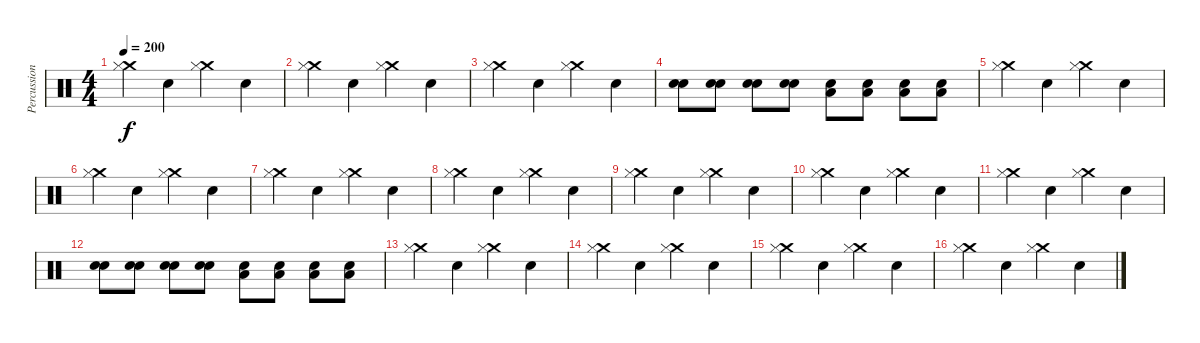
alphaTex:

\track ("Percussion" "Percussion") {instrument percussion}
\staff {score}
\articulation defaults
\ts (4 4)
\tempo 200
\clef neutral
\ks c
("Crash medium (hit)" "Hi-Hat (closed)").4{dy f} "Snare (hit) 2".4 ("Crash medium (hit)" "Hi-Hat (closed)").4 "Snare (hit) 2".4 |
("Crash medium (hit)" "Hi-Hat (closed)").4 "Snare (hit) 2".4 ("Crash medium (hit)" "Hi-Hat (closed)").4 "Snare (hit) 2".4 |
("Crash medium (hit)" "Hi-Hat (closed)").4 "Snare (hit) 2".4 ("Crash medium (hit)" "Hi-Hat (closed)").4 "Snare (hit) 2".4 |
("Snare (hit) 2" "Snare (hit) 2").8 ("Snare (hit) 2" "Snare (hit) 2").8 ("Snare (hit) 2" "Snare (hit) 2").8 ("Snare (hit) 2" "Snare (hit) 2").8 ("Low Floor Tom (hit)" "Snare (hit) 2").8 ("Low Floor Tom (hit)" "Snare (hit) 2").8 ("Low Floor Tom (hit)" "Snare (hit) 2").8 ("Low Floor Tom (hit)" "Snare (hit) 2").8 |
("Crash medium (hit)" "Hi-Hat (closed)").4 "Snare (hit) 2".4 ("Crash medium (hit)" "Hi-Hat (closed)").4 "Snare (hit) 2".4 |
("Crash medium (hit)" "Hi-Hat (closed)").4 "Snare (hit) 2".4 ("Crash medium (hit)" "Hi-Hat (closed)").4 "Snare (hit) 2".4 |
("Crash medium (hit)" "Hi-Hat (closed)").4 "Snare (hit) 2".4 ("Crash medium (hit)" "Hi-Hat (closed)").4 "Snare (hit) 2".4 |
("Crash medium (hit)" "Hi-Hat (closed)").4 "Snare (hit) 2".4 ("Crash medium (hit)" "Hi-Hat (closed)").4 "Snare (hit) 2".4 |
("Crash medium (hit)" "Hi-Hat (closed)").4 "Snare (hit) 2".4 ("Crash medium (hit)" "Hi-Hat (closed)").4 "Snare (hit) 2".4 |
("Crash medium (hit)" "Hi-Hat (closed)").4 "Snare (hit) 2".4 ("Crash medium (hit)" "Hi-Hat (closed)").4 "Snare (hit) 2".4 |
("Crash medium (hit)" "Hi-Hat (closed)").4 "Snare (hit) 2".4 ("Crash medium (hit)" "Hi-Hat (closed)").4 "Snare (hit) 2".4 |
("Snare (hit) 2" "Snare (hit) 2").8 ("Snare (hit) 2" "Snare (hit) 2").8 ("Snare (hit) 2" "Snare (hit) 2").8 ("Snare (hit) 2" "Snare (hit) 2").8 ("Low Floor Tom (hit)" "Snare (hit) 2").8 ("Low Floor Tom (hit)" "Snare (hit) 2").8 ("Low Floor Tom (hit)" "Snare (hit) 2").8 ("Low Floor Tom (hit)" "Snare (hit) 2").8 |
("Crash medium (hit)" "Hi-Hat (closed)").4 "Snare (hit) 2".4 ("Crash medium (hit)" "Hi-Hat (closed)").4 "Snare (hit) 2".4 |
("Crash medium (hit)" "Hi-Hat (closed)").4 "Snare (hit) 2".4 ("Crash medium (hit)" "Hi-Hat (closed)").4 "Snare (hit) 2".4 |
("Crash medium (hit)" "Hi-Hat (closed)").4 "Snare (hit) 2".4 ("Crash medium (hit)" "Hi-Hat (closed)").4 "Snare (hit) 2".4 |
("Crash medium (hit)" "Hi-Hat (closed)").4 "Snare (hit) 2".4 ("Crash medium (hit)" "Hi-Hat (closed)").4 "Snare (hit) 2".4
